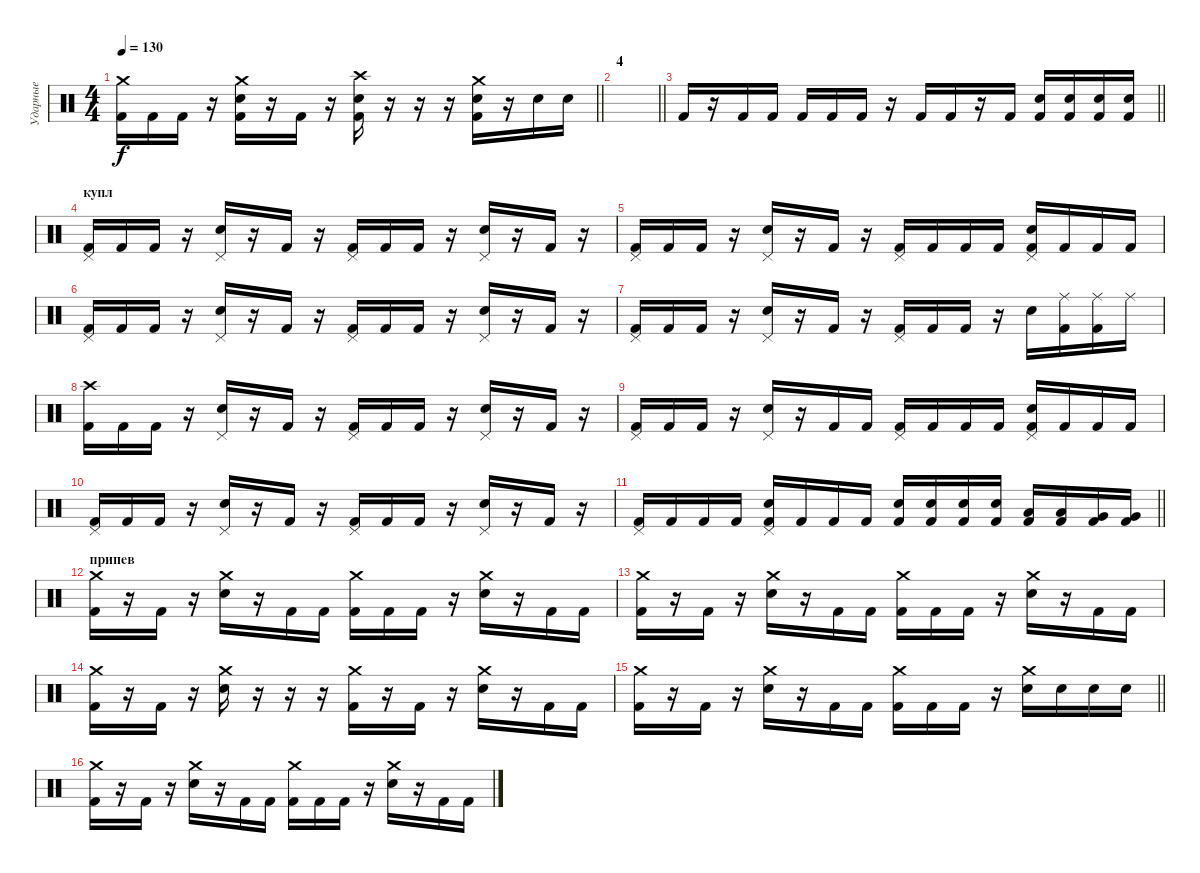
\track ("Ударные" "Ударные") {instrument percussion}
\staff {score}
\articulation defaults
\ts (4 4)
\tempo 130
\clef neutral
\barLineRight lightlight
\ks c
("Crash medium (hit)" "Kick (hit) 2").16{dy f} "Kick (hit) 2".16 "Kick (hit) 2".16 r.16 ("Crash medium (hit)" "Snare (hit) 2" "Kick (hit) 2").16 r.16 "Kick (hit) 2".16 r.16 ("Crash high (hit)" "Snare (hit) 2" "Kick (hit) 2").16 r.16 r.16 r.16 ("Crash medium (hit)" "Snare (hit) 2" "Kick (hit) 2").16 r.16 "Snare (hit) 2".16 "Snare (hit) 2".16 |
\section ("" "4")
\barLineRight lightlight
|
\barLineRight lightlight "Kick (hit) 2".16
r.16 "Kick (hit) 2".16 "Kick (hit) 2".16 "Kick (hit) 2".16 "Kick (hit) 2".16 "Kick (hit) 2".16 r.16 "Kick (hit) 2".16 "Kick (hit) 2".16 r.16 "Kick (hit) 2".16 ("Snare (hit) 2" "Kick (hit) 2").16 ("Snare (hit) 2" "Kick (hit) 2").16 ("Snare (hit) 2" "Kick (hit) 2").16 ("Snare (hit) 2" "Kick (hit) 2").16 |
\section ("" "купл")
("Pedal Hi-Hat (hit)" "Kick (hit) 2").16 "Kick (hit) 2".16 "Kick (hit) 2".16 r.16 ("Pedal Hi-Hat (hit)" "Snare (hit) 2").16 r.16 "Kick (hit) 2".16 r.16 ("Pedal Hi-Hat (hit)" "Kick (hit) 2").16 "Kick (hit) 2".16 "Kick (hit) 2".16 r.16 ("Pedal Hi-Hat (hit)" "Snare (hit) 2").16 r.16 "Kick (hit) 2".16 r.16 |
("Pedal Hi-Hat (hit)" "Kick (hit) 2").16 "Kick (hit) 2".16 "Kick (hit) 2".16 r.16 ("Pedal Hi-Hat (hit)" "Snare (hit) 2").16 r.16 "Kick (hit) 2".16 r.16 ("Pedal Hi-Hat (hit)" "Kick (hit) 2").16 "Kick (hit) 2".16 "Kick (hit) 2".16 "Kick (hit) 2".16 ("Pedal Hi-Hat (hit)" "Snare (hit) 2" "Kick (hit) 2").16 "Kick (hit) 2".16 "Kick (hit) 2".16 "Kick (hit) 2".16 |
("Pedal Hi-Hat (hit)" "Kick (hit) 2").16 "Kick (hit) 2".16 "Kick (hit) 2".16 r.16 ("Pedal Hi-Hat (hit)" "Snare (hit) 2").16 r.16 "Kick (hit) 2".16 r.16 ("Pedal Hi-Hat (hit)" "Kick (hit) 2").16 "Kick (hit) 2".16 "Kick (hit) 2".16 r.16 ("Pedal Hi-Hat (hit)" "Snare (hit) 2").16 r.16 "Kick (hit) 2".16 r.16 |
("Pedal Hi-Hat (hit)" "Kick (hit) 2").16 "Kick (hit) 2".16 "Kick (hit) 2".16 r.16 ("Pedal Hi-Hat (hit)" "Snare (hit) 2").16 r.16 "Kick (hit) 2".16 r.16 ("Pedal Hi-Hat (hit)" "Kick (hit) 2").16 "Kick (hit) 2".16 "Kick (hit) 2".16 r.16 "Snare (hit) 2".16 ("Ride (middle)" "Kick (hit) 2").16 ("Ride (middle)" "Kick (hit) 2").16 "Ride (middle)".16 |
("Crash high (hit)" "Kick (hit) 2").16 "Kick (hit) 2".16 "Kick (hit) 2".16 r.16 ("Pedal Hi-Hat (hit)" "Snare (hit) 2").16 r.16 "Kick (hit) 2".16 r.16 ("Pedal Hi-Hat (hit)" "Kick (hit) 2").16 "Kick (hit) 2".16 "Kick (hit) 2".16 r.16 ("Pedal Hi-Hat (hit)" "Snare (hit) 2").16 r.16 "Kick (hit) 2".16 r.16 |
("Pedal Hi-Hat (hit)" "Kick (hit) 2").16 "Kick (hit) 2".16 "Kick (hit) 2".16 r.16 ("Pedal Hi-Hat (hit)" "Snare (hit) 2").16 r.16 "Kick (hit) 2".16 "Kick (hit) 2".16 ("Pedal Hi-Hat (hit)" "Kick (hit) 2").16 "Kick (hit) 2".16 "Kick (hit) 2".16 "Kick (hit) 2".16 ("Pedal Hi-Hat (hit)" "Snare (hit) 2" "Kick (hit) 2").16 "Kick (hit) 2".16 "Kick (hit) 2".16 "Kick (hit) 2".16 |
("Pedal Hi-Hat (hit)" "Kick (hit) 2").16 "Kick (hit) 2".16 "Kick (hit) 2".16 r.16 ("Pedal Hi-Hat (hit)" "Snare (hit) 2").16 r.16 "Kick (hit) 2".16 r.16 ("Pedal Hi-Hat (hit)" "Kick (hit) 2").16 "Kick (hit) 2".16 "Kick (hit) 2".16 r.16 ("Pedal Hi-Hat (hit)" "Snare (hit) 2").16 r.16 "Kick (hit) 2".16 r.16 |
\barLineRight lightlight
("Pedal Hi-Hat (hit)" "Kick (hit) 2").16 "Kick (hit) 2".16 "Kick (hit) 2".16 "Kick (hit) 2".16 ("Pedal Hi-Hat (hit)" "Snare (hit) 2" "Kick (hit) 2").16 "Kick (hit) 2".16 "Kick (hit) 2".16 "Kick (hit) 2".16 ("Snare (hit) 2" "Kick (hit) 2").16 ("Snare (hit) 2" "Kick (hit) 2").16 ("Snare (hit) 2" "Kick (hit) 2").16 ("Snare (hit) 2" "Kick (hit) 2").16 ("Low Floor Tom (hit)" "Kick (hit) 2").16 ("Low Floor Tom (hit)" "Kick (hit) 2").16 ("Very Low Tom (hit)" "Kick (hit) 2").16 ("Very Low Tom (hit)" "Kick (hit) 2").16 |
\section ("" "припев")
("Crash medium (hit)" "Kick (hit) 2").16 r.16 "Kick (hit) 2".16 r.16 ("Crash medium (hit)" "Snare (hit) 2").16 r.16 "Kick (hit) 2".16 "Kick (hit) 2".16 ("Crash medium (hit)" "Kick (hit) 2").16 "Kick (hit) 2".16 "Kick (hit) 2".16 r.16 ("Crash medium (hit)" "Snare (hit) 2").16 r.16 "Kick (hit) 2".16 "Kick (hit) 2".16 |
("Crash medium (hit)" "Kick (hit) 2").16 r.16 "Kick (hit) 2".16 r.16 ("Crash medium (hit)" "Snare (hit) 2").16 r.16 "Kick (hit) 2".16 "Kick (hit) 2".16 ("Crash medium (hit)" "Kick (hit) 2").16 "Kick (hit) 2".16 "Kick (hit) 2".16 r.16 ("Crash medium (hit)" "Snare (hit) 2").16 r.16 "Kick (hit) 2".16 "Kick (hit) 2".16 |
("Crash medium (hit)" "Kick (hit) 2").16 r.16 "Kick (hit) 2".16 r.16 ("Crash medium (hit)" "Snare (hit) 2").16 r.16 r.16 r.16 ("Crash medium (hit)" "Kick (hit) 2").16 r.16 "Kick (hit) 2".16 r.16 ("Crash medium (hit)" "Snare (hit) 2").16 r.16 "Kick (hit) 2".16 "Kick (hit) 2".16 |
\barLineRight lightlight
("Crash medium (hit)" "Kick (hit) 2").16 r.16 "Kick (hit) 2".16 r.16 ("Crash medium (hit)" "Snare (hit) 2").16 r.16 "Kick (hit) 2".16 "Kick (hit) 2".16 ("Crash medium (hit)" "Kick (hit) 2").16 "Kick (hit) 2".16 "Kick (hit) 2".16 r.16 ("Crash medium (hit)" "Snare (hit) 2").16 "Snare (hit) 2".16 "Snare (hit) 2".16 "Snare (hit) 2".16 |
("Crash medium (hit)" "Kick (hit) 2").16 r.16 "Kick (hit) 2".16 r.16 ("Crash medium (hit)" "Snare (hit) 2").16 r.16 "Kick (hit) 2".16 "Kick (hit) 2".16 ("Crash medium (hit)" "Kick (hit) 2").16 "Kick (hit) 2".16 "Kick (hit) 2".16 r.16 ("Crash medium (hit)" "Snare (hit) 2").16 r.16 "Kick (hit) 2".16 "Kick (hit) 2".16
